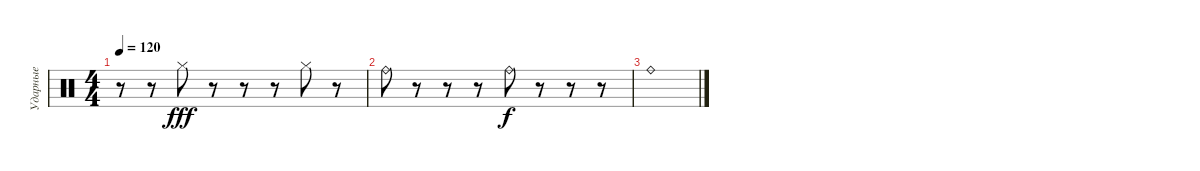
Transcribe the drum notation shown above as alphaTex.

\track ("Ударные" "Ударные") {instrument percussion}
\staff {score}
\articulation defaults
\ts (4 4)
\tempo 120
\clef neutral
\ks c
r.8{dy fff} r.8 "Hi-Hat (closed)".8 r.8 r.8 r.8 "Hi-Hat (closed)".8 r.8 |
"Ride (bell)".8 r.8 r.8 r.8 "Ride (bell)".8{dy f} r.8 r.8 r.8 |
"Ride (bell)".1
